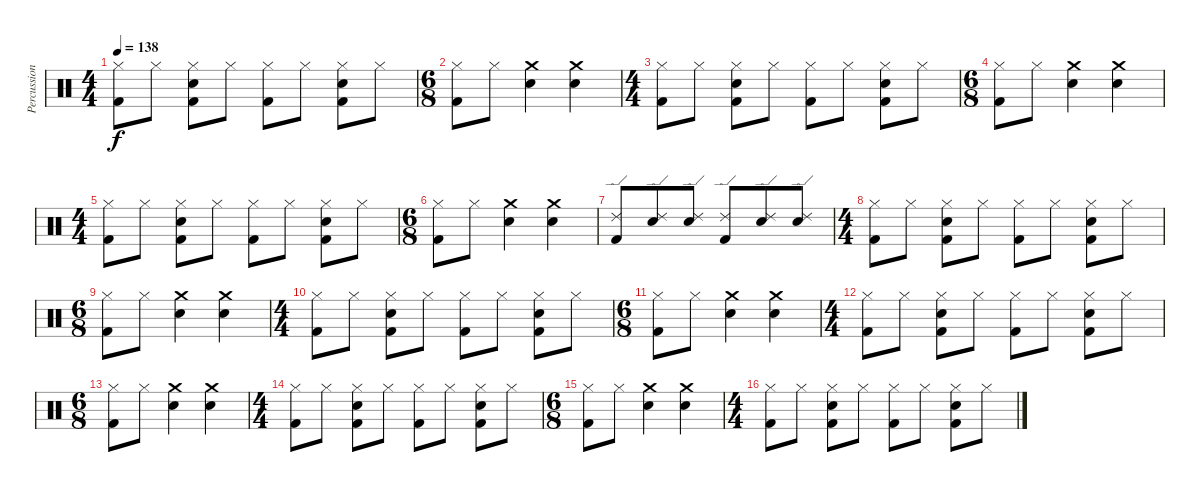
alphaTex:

\track ("Percussion" "Percussion") {instrument percussion}
\staff {score}
\articulation defaults
\ts (4 4)
\tempo 138
\clef neutral
\ks c
("Hi-Hat (closed)" "Kick (hit) 2").8{dy f} "Hi-Hat (closed)".8 ("Hi-Hat (closed)" "Snare (hit) 2" "Kick (hit) 2").8 "Hi-Hat (closed)".8 ("Hi-Hat (closed)" "Kick (hit) 2").8 "Hi-Hat (closed)".8 ("Hi-Hat (closed)" "Snare (hit) 2" "Kick (hit) 2").8 "Hi-Hat (closed)".8 |
\ts (6 8)
("Hi-Hat (closed)" "Kick (hit) 2").8 "Hi-Hat (closed)".8 ("Crash medium (hit)" "Snare (hit) 2").4 ("Crash medium (hit)" "Snare (hit) 2").4 |
\ts (4 4)
("Hi-Hat (closed)" "Kick (hit) 2").8 "Hi-Hat (closed)".8 ("Hi-Hat (closed)" "Snare (hit) 2" "Kick (hit) 2").8 "Hi-Hat (closed)".8 ("Hi-Hat (closed)" "Kick (hit) 2").8 "Hi-Hat (closed)".8 ("Hi-Hat (closed)" "Snare (hit) 2" "Kick (hit) 2").8 "Hi-Hat (closed)".8 |
\ts (6 8)
("Hi-Hat (closed)" "Kick (hit) 2").8 "Hi-Hat (closed)".8 ("Crash medium (hit)" "Snare (hit) 2").4 ("Crash medium (hit)" "Snare (hit) 2").4 |
\ts (4 4)
("Hi-Hat (closed)" "Kick (hit) 2").8 "Hi-Hat (closed)".8 ("Hi-Hat (closed)" "Snare (hit) 2" "Kick (hit) 2").8 "Hi-Hat (closed)".8 ("Hi-Hat (closed)" "Kick (hit) 2").8 "Hi-Hat (closed)".8 ("Hi-Hat (closed)" "Snare (hit) 2" "Kick (hit) 2").8 "Hi-Hat (closed)".8 |
\ts (6 8)
("Hi-Hat (closed)" "Kick (hit) 2").8 "Hi-Hat (closed)".8 ("Crash medium (hit)" "Snare (hit) 2").4 ("Crash medium (hit)" "Snare (hit) 2").4 |
("Ride (edge) 2" "Kick (hit) 2").8 ("Ride (edge) 2" "Snare (hit) 2").8 ("Ride (edge) 2" "Snare (hit) 2").8 ("Ride (edge) 2" "Kick (hit) 2").8 ("Ride (edge) 2" "Snare (hit) 2").8 ("Ride (edge) 2" "Snare (hit) 2").8 |
\ts (4 4)
("Hi-Hat (closed)" "Kick (hit) 2").8 "Hi-Hat (closed)".8 ("Hi-Hat (closed)" "Snare (hit) 2" "Kick (hit) 2").8 "Hi-Hat (closed)".8 ("Hi-Hat (closed)" "Kick (hit) 2").8 "Hi-Hat (closed)".8 ("Hi-Hat (closed)" "Snare (hit) 2" "Kick (hit) 2").8 "Hi-Hat (closed)".8 |
\ts (6 8)
("Hi-Hat (closed)" "Kick (hit) 2").8 "Hi-Hat (closed)".8 ("Crash medium (hit)" "Snare (hit) 2").4 ("Crash medium (hit)" "Snare (hit) 2").4 |
\ts (4 4)
("Hi-Hat (closed)" "Kick (hit) 2").8 "Hi-Hat (closed)".8 ("Hi-Hat (closed)" "Snare (hit) 2" "Kick (hit) 2").8 "Hi-Hat (closed)".8 ("Hi-Hat (closed)" "Kick (hit) 2").8 "Hi-Hat (closed)".8 ("Hi-Hat (closed)" "Snare (hit) 2" "Kick (hit) 2").8 "Hi-Hat (closed)".8 |
\ts (6 8)
("Hi-Hat (closed)" "Kick (hit) 2").8 "Hi-Hat (closed)".8 ("Crash medium (hit)" "Snare (hit) 2").4 ("Crash medium (hit)" "Snare (hit) 2").4 |
\ts (4 4)
("Hi-Hat (closed)" "Kick (hit) 2").8 "Hi-Hat (closed)".8 ("Hi-Hat (closed)" "Snare (hit) 2" "Kick (hit) 2").8 "Hi-Hat (closed)".8 ("Hi-Hat (closed)" "Kick (hit) 2").8 "Hi-Hat (closed)".8 ("Hi-Hat (closed)" "Snare (hit) 2" "Kick (hit) 2").8 "Hi-Hat (closed)".8 |
\ts (6 8)
("Hi-Hat (closed)" "Kick (hit) 2").8 "Hi-Hat (closed)".8 ("Crash medium (hit)" "Snare (hit) 2").4 ("Crash medium (hit)" "Snare (hit) 2").4 |
\ts (4 4)
("Hi-Hat (closed)" "Kick (hit) 2").8 "Hi-Hat (closed)".8 ("Hi-Hat (closed)" "Snare (hit) 2" "Kick (hit) 2").8 "Hi-Hat (closed)".8 ("Hi-Hat (closed)" "Kick (hit) 2").8 "Hi-Hat (closed)".8 ("Hi-Hat (closed)" "Snare (hit) 2" "Kick (hit) 2").8 "Hi-Hat (closed)".8 |
\ts (6 8)
("Hi-Hat (closed)" "Kick (hit) 2").8 "Hi-Hat (closed)".8 ("Crash medium (hit)" "Snare (hit) 2").4 ("Crash medium (hit)" "Snare (hit) 2").4 |
\ts (4 4)
("Hi-Hat (closed)" "Kick (hit) 2").8 "Hi-Hat (closed)".8 ("Hi-Hat (closed)" "Snare (hit) 2" "Kick (hit) 2").8 "Hi-Hat (closed)".8 ("Hi-Hat (closed)" "Kick (hit) 2").8 "Hi-Hat (closed)".8 ("Hi-Hat (closed)" "Snare (hit) 2" "Kick (hit) 2").8 "Hi-Hat (closed)".8
